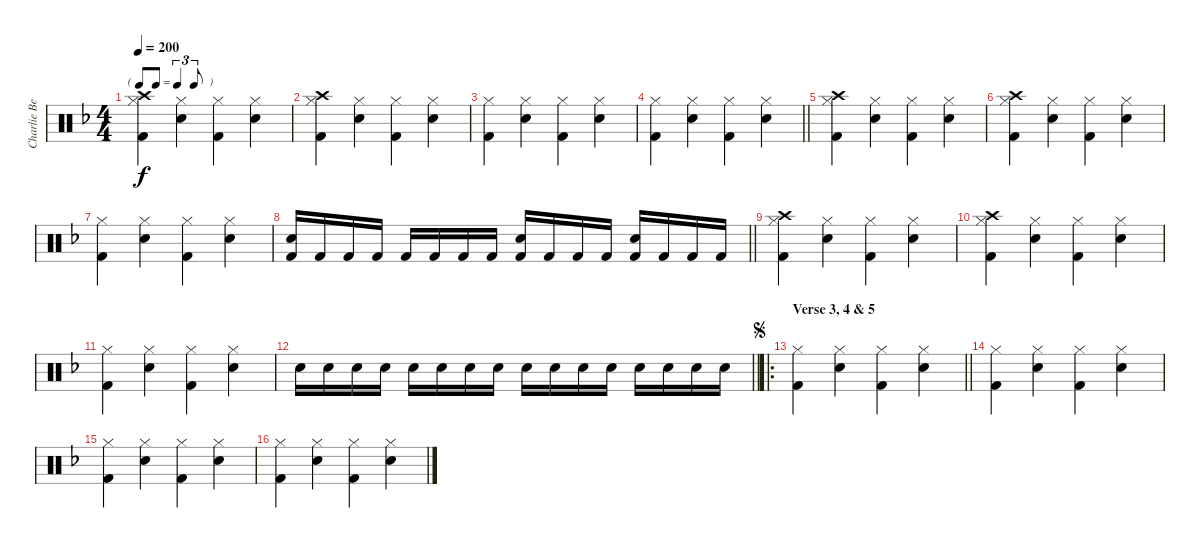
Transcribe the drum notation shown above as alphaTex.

\track ("Charlie Benante" "Charlie Be") {instrument percussion}
\staff {score}
\articulation defaults
\ts (4 4)
\tf triplet8th
\tempo 200
\clef neutral
\ks f
("Crash high (hit)" "Hi-Hat (closed)" "Kick (hit) 2").4{dy f} ("Hi-Hat (closed)" "Electric Snare (hit)").4 ("Hi-Hat (closed)" "Kick (hit) 2").4 ("Hi-Hat (closed)" "Electric Snare (hit)").4 |
("Crash high (hit)" "Hi-Hat (closed)" "Kick (hit) 2").4 ("Hi-Hat (closed)" "Electric Snare (hit)").4 ("Hi-Hat (closed)" "Kick (hit) 2").4 ("Hi-Hat (closed)" "Electric Snare (hit)").4 |
("Hi-Hat (closed)" "Kick (hit) 2").4 ("Hi-Hat (closed)" "Electric Snare (hit)").4 ("Hi-Hat (closed)" "Kick (hit) 2").4 ("Hi-Hat (closed)" "Electric Snare (hit)").4 |
\barLineRight lightlight
("Hi-Hat (closed)" "Kick (hit) 2").4 ("Hi-Hat (closed)" "Electric Snare (hit)").4 ("Hi-Hat (closed)" "Kick (hit) 2").4 ("Hi-Hat (closed)" "Electric Snare (hit)").4 |
("Crash high (hit)" "Hi-Hat (closed)" "Kick (hit) 2").4 ("Hi-Hat (closed)" "Electric Snare (hit)").4 ("Hi-Hat (closed)" "Kick (hit) 2").4 ("Hi-Hat (closed)" "Electric Snare (hit)").4 |
("Crash high (hit)" "Hi-Hat (closed)" "Kick (hit) 2").4 ("Hi-Hat (closed)" "Electric Snare (hit)").4 ("Hi-Hat (closed)" "Kick (hit) 2").4 ("Hi-Hat (closed)" "Electric Snare (hit)").4 |
("Hi-Hat (closed)" "Kick (hit) 2").4 ("Hi-Hat (closed)" "Electric Snare (hit)").4 ("Hi-Hat (closed)" "Kick (hit) 2").4 ("Hi-Hat (closed)" "Electric Snare (hit)").4 |
\barLineRight lightlight
("Electric Snare (hit)" "Kick (hit) 2").16 "Kick (hit) 2".16 "Kick (hit) 2".16 "Kick (hit) 2".16 "Kick (hit) 2".16 "Kick (hit) 2".16 "Kick (hit) 2".16 "Kick (hit) 2".16 ("Electric Snare (hit)" "Kick (hit) 2").16 "Kick (hit) 2".16 "Kick (hit) 2".16 "Kick (hit) 2".16 ("Electric Snare (hit)" "Kick (hit) 2").16 "Kick (hit) 2".16 "Kick (hit) 2".16 "Kick (hit) 2".16 |
("Crash high (hit)" "Hi-Hat (closed)" "Kick (hit) 2").4 ("Hi-Hat (closed)" "Electric Snare (hit)").4 ("Hi-Hat (closed)" "Kick (hit) 2").4 ("Hi-Hat (closed)" "Electric Snare (hit)").4 |
("Crash high (hit)" "Hi-Hat (closed)" "Kick (hit) 2").4 ("Hi-Hat (closed)" "Electric Snare (hit)").4 ("Hi-Hat (closed)" "Kick (hit) 2").4 ("Hi-Hat (closed)" "Electric Snare (hit)").4 |
("Hi-Hat (closed)" "Kick (hit) 2").4 ("Hi-Hat (closed)" "Electric Snare (hit)").4 ("Hi-Hat (closed)" "Kick (hit) 2").4 ("Hi-Hat (closed)" "Electric Snare (hit)").4 |
\barLineRight lightlight "Electric Snare (hit)".16 "Electric Snare (hit)".16 "Electric Snare (hit)".16 "Electric Snare (hit)".16 "Electric Snare (hit)".16 "Electric Snare (hit)".16 "Electric Snare (hit)".16 "Electric Snare (hit)".16 "Electric Snare (hit)".16 "Electric Snare (hit)".16 "Electric Snare (hit)".16 "Electric Snare (hit)".16 "Electric Snare (hit)".16 "Electric Snare (hit)".16 "Electric Snare (hit)".16 "Electric Snare (hit)".16
|
\ro
\section ("" "Verse 3, 4 & 5")
\jump segno
\barLineRight lightlight
("Hi-Hat (closed)" "Kick (hit) 2").4 ("Hi-Hat (closed)" "Electric Snare (hit)").4 ("Hi-Hat (closed)" "Kick (hit) 2").4 ("Hi-Hat (closed)" "Electric Snare (hit)").4 |
("Hi-Hat (closed)" "Kick (hit) 2").4 ("Hi-Hat (closed)" "Electric Snare (hit)").4 ("Hi-Hat (closed)" "Kick (hit) 2").4 ("Hi-Hat (closed)" "Electric Snare (hit)").4 |
("Hi-Hat (closed)" "Kick (hit) 2").4 ("Hi-Hat (closed)" "Electric Snare (hit)").4 ("Hi-Hat (closed)" "Kick (hit) 2").4 ("Hi-Hat (closed)" "Electric Snare (hit)").4 |
("Hi-Hat (closed)" "Kick (hit) 2").4 ("Hi-Hat (closed)" "Electric Snare (hit)").4 ("Hi-Hat (closed)" "Kick (hit) 2").4 ("Hi-Hat (closed)" "Electric Snare (hit)").4
